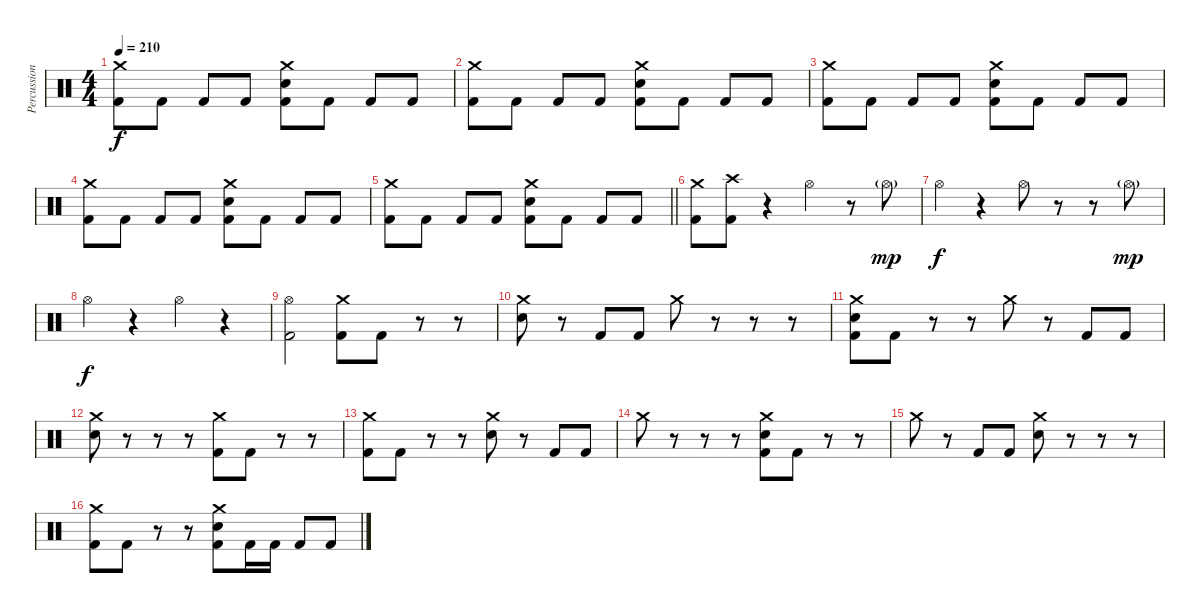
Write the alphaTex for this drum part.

\track ("Percussion" "Percussion") {instrument percussion}
\staff {score}
\articulation defaults
\ts (4 4)
\tempo 210
\clef neutral
\ks c
("Crash medium (hit)" "Kick (hit) 2").8{dy f} "Kick (hit) 2".8 "Kick (hit) 2".8 "Kick (hit) 2".8 ("Crash medium (hit)" "Electric Snare (hit)" "Kick (hit) 2").8 "Kick (hit) 2".8 "Kick (hit) 2".8 "Kick (hit) 2".8 |
("Crash medium (hit)" "Kick (hit) 2").8 "Kick (hit) 2".8 "Kick (hit) 2".8 "Kick (hit) 2".8 ("Crash medium (hit)" "Electric Snare (hit)" "Kick (hit) 2").8 "Kick (hit) 2".8 "Kick (hit) 2".8 "Kick (hit) 2".8 |
("Crash medium (hit)" "Kick (hit) 2").8 "Kick (hit) 2".8 "Kick (hit) 2".8 "Kick (hit) 2".8 ("Crash medium (hit)" "Electric Snare (hit)" "Kick (hit) 2").8 "Kick (hit) 2".8 "Kick (hit) 2".8 "Kick (hit) 2".8 |
("Crash medium (hit)" "Kick (hit) 2").8 "Kick (hit) 2".8 "Kick (hit) 2".8 "Kick (hit) 2".8 ("Crash medium (hit)" "Electric Snare (hit)" "Kick (hit) 2").8 "Kick (hit) 2".8 "Kick (hit) 2".8 "Kick (hit) 2".8 |
\barLineRight lightlight
("Crash medium (hit)" "Kick (hit) 2").8 "Kick (hit) 2".8 "Kick (hit) 2".8 "Kick (hit) 2".8 ("Crash medium (hit)" "Electric Snare (hit)" "Kick (hit) 2").8 "Kick (hit) 2".8 "Kick (hit) 2".8 "Kick (hit) 2".8 |
("Crash medium (hit)" "Kick (hit) 2").8 ("Crash high (hit)" "Kick (hit) 2").8 r.4 "Hi-Hat (open)".4 r.8 "Hi-Hat (open)"{g}.8{dy mp} |
"Hi-Hat (open)".4{dy f} r.4 "Hi-Hat (open)".8 r.8 r.8 "Hi-Hat (open)"{g}.8{dy mp} |
"Hi-Hat (open)".4{dy f} r.4 "Hi-Hat (open)".4 r.4 |
("Hi-Hat (open)" "Kick (hit) 2").2 ("Crash medium (hit)" "Kick (hit) 2").8 "Kick (hit) 2".8 r.8 r.8 |
("Crash medium (hit)" "Electric Snare (hit)").8 r.8 "Kick (hit) 2".8 "Kick (hit) 2".8 "Crash medium (hit)".8 r.8 r.8 r.8 |
("Crash medium (hit)" "Electric Snare (hit)" "Kick (hit) 2").8 "Kick (hit) 2".8 r.8 r.8 "Crash medium (hit)".8 r.8 "Kick (hit) 2".8 "Kick (hit) 2".8 |
("Crash medium (hit)" "Electric Snare (hit)").8 r.8 r.8 r.8 ("Crash medium (hit)" "Kick (hit) 2").8 "Kick (hit) 2".8 r.8 r.8 |
("Crash medium (hit)" "Kick (hit) 2").8 "Kick (hit) 2".8 r.8 r.8 ("Crash medium (hit)" "Electric Snare (hit)").8 r.8 "Kick (hit) 2".8 "Kick (hit) 2".8 |
"Crash medium (hit)".8 r.8 r.8 r.8 ("Crash medium (hit)" "Electric Snare (hit)" "Kick (hit) 2").8 "Kick (hit) 2".8 r.8 r.8 |
"Crash medium (hit)".8 r.8 "Kick (hit) 2".8 "Kick (hit) 2".8 ("Crash medium (hit)" "Electric Snare (hit)").8 r.8 r.8 r.8 |
("Crash medium (hit)" "Kick (hit) 2").8 "Kick (hit) 2".8 r.8 r.8 ("Crash medium (hit)" "Electric Snare (hit)" "Kick (hit) 2").8 "Kick (hit) 2".16 "Kick (hit) 2".16 "Kick (hit) 2".8 "Kick (hit) 2".8
